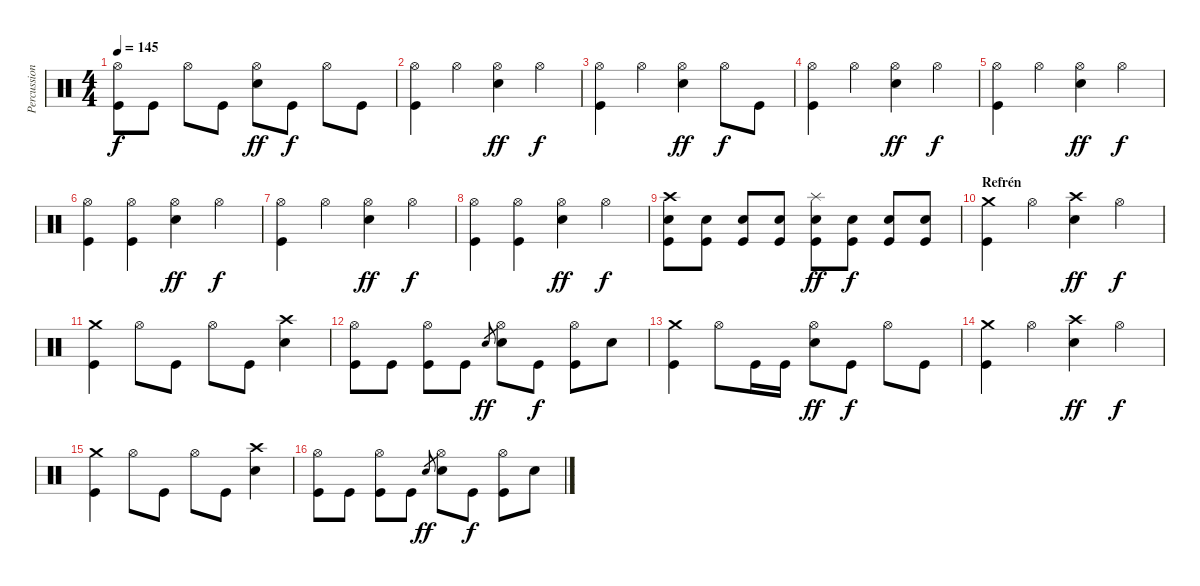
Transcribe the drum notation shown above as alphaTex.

\track ("Percussion" "Percussion") {instrument percussion}
\staff {score}
\articulation defaults
\ts (4 4)
\tempo 145
\clef neutral
\ks c
("Hi-Hat (open)" "Kick (hit)").8{dy f} "Kick (hit)".8 "Hi-Hat (open)".8 "Kick (hit)".8 ("Hi-Hat (open)" "Snare (hit) 2").8{dy ff} "Kick (hit)".8{dy f} "Hi-Hat (open)".8 "Kick (hit)".8 |
("Hi-Hat (open)" "Kick (hit)").4 "Hi-Hat (open)".4 ("Hi-Hat (open)" "Snare (hit) 2").4{dy ff} "Hi-Hat (open)".4{dy f} |
("Hi-Hat (open)" "Kick (hit)").4 "Hi-Hat (open)".4 ("Hi-Hat (open)" "Snare (hit) 2").4{dy ff} "Hi-Hat (open)".8{dy f} "Kick (hit)".8 |
("Hi-Hat (open)" "Kick (hit)").4 "Hi-Hat (open)".4 ("Hi-Hat (open)" "Snare (hit) 2").4{dy ff} "Hi-Hat (open)".4{dy f} |
("Hi-Hat (open)" "Kick (hit)").4 "Hi-Hat (open)".4 ("Hi-Hat (open)" "Snare (hit) 2").4{dy ff} "Hi-Hat (open)".4{dy f} |
("Hi-Hat (open)" "Kick (hit)").4 ("Hi-Hat (open)" "Kick (hit)").4 ("Hi-Hat (open)" "Snare (hit) 2").4{dy ff} "Hi-Hat (open)".4{dy f} |
("Hi-Hat (open)" "Kick (hit)").4 "Hi-Hat (open)".4 ("Hi-Hat (open)" "Snare (hit) 2").4{dy ff} "Hi-Hat (open)".4{dy f} |
("Hi-Hat (open)" "Kick (hit)").4 ("Hi-Hat (open)" "Kick (hit)").4 ("Hi-Hat (open)" "Snare (hit) 2").4{dy ff} "Hi-Hat (open)".4{dy f} |
("Crash high (hit)" "Kick (hit)" "Snare (hit) 2").8 ("Kick (hit)" "Snare (hit) 2").8 ("Kick (hit)" "Snare (hit) 2").8 ("Kick (hit)" "Snare (hit) 2").8 ("Splash (hit)" "Kick (hit)" "Snare (hit) 2").8{dy ff} ("Kick (hit)" "Snare (hit) 2").8{dy f} ("Kick (hit)" "Snare (hit) 2").8 ("Kick (hit)" "Snare (hit) 2").8 |
\section ("" "Refrén")
("Crash medium (hit)" "Kick (hit)").4 "Hi-Hat (open)".4 ("Crash high (hit)" "Snare (hit) 2").4{dy ff} "Hi-Hat (open)".4{dy f} |
("Crash medium (hit)" "Kick (hit)").4 "Hi-Hat (open)".8 "Kick (hit)".8 "Hi-Hat (open)".8 "Kick (hit)".8 ("Crash high (hit)" "Snare (hit) 2").4 |
("Hi-Hat (open)" "Kick (hit)").8 "Kick (hit)".8 ("Hi-Hat (open)" "Kick (hit)").8 "Kick (hit)".8 "Snare (hit) 2".8{gr dy ff} ("Hi-Hat (open)" "Snare (hit) 2").8 "Kick (hit)".8{dy f} ("Hi-Hat (open)" "Kick (hit)").8 "Snare (hit) 2".8 |
("Crash medium (hit)" "Kick (hit)").4 "Hi-Hat (open)".8 "Kick (hit)".16 "Kick (hit)".16 ("Hi-Hat (open)" "Snare (hit) 2").8{dy ff} "Kick (hit)".8{dy f} "Hi-Hat (open)".8 "Kick (hit)".8 |
("Crash medium (hit)" "Kick (hit)").4 "Hi-Hat (open)".4 ("Crash high (hit)" "Snare (hit) 2").4{dy ff} "Hi-Hat (open)".4{dy f} |
("Crash medium (hit)" "Kick (hit)").4 "Hi-Hat (open)".8 "Kick (hit)".8 "Hi-Hat (open)".8 "Kick (hit)".8 ("Crash high (hit)" "Snare (hit) 2").4 |
("Hi-Hat (open)" "Kick (hit)").8 "Kick (hit)".8 ("Hi-Hat (open)" "Kick (hit)").8 "Kick (hit)".8 "Snare (hit) 2".8{gr dy ff} ("Hi-Hat (open)" "Snare (hit) 2").8 "Kick (hit)".8{dy f} ("Hi-Hat (open)" "Kick (hit)").8 "Snare (hit) 2".8
